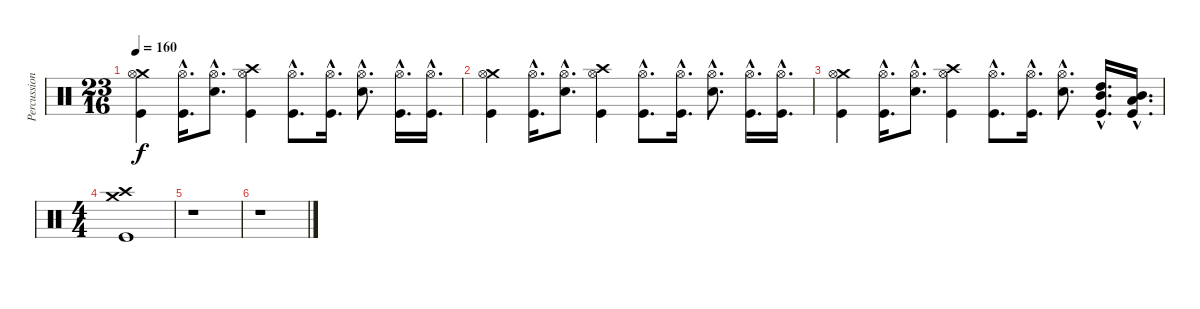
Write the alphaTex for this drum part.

\track ("Percussion" "Percussion") {instrument percussion}
\staff {score}
\articulation defaults
\ts (23 16)
\tempo 160
\clef neutral
\ks c
("Crash medium (hit)" "Hi-Hat (open)" "Kick (hit)").4{dy f} ("Hi-Hat (open)"{hac} "Kick (hit)"{hac}).16{d} ("Hi-Hat (open)"{hac} "Electric Snare (hit)"{hac}).8{d} ("Crash high (hit)" "Hi-Hat (open)" "Kick (hit)").4 ("Hi-Hat (open)"{hac} "Kick (hit)"{hac}).8{d} ("Hi-Hat (open)"{hac} "Kick (hit)"{hac}).16{d} ("Hi-Hat (open)"{hac} "Electric Snare (hit)"{hac}).8{d} ("Hi-Hat (open)"{hac} "Kick (hit)"{hac}).16{d} ("Hi-Hat (open)"{hac} "Kick (hit)"{hac}).16{d} |
("Crash medium (hit)" "Hi-Hat (open)" "Kick (hit)").4 ("Hi-Hat (open)"{hac} "Kick (hit)"{hac}).16{d} ("Hi-Hat (open)"{hac} "Electric Snare (hit)"{hac}).8{d} ("Crash high (hit)" "Hi-Hat (open)" "Kick (hit)").4 ("Hi-Hat (open)"{hac} "Kick (hit)"{hac}).8{d} ("Hi-Hat (open)"{hac} "Kick (hit)"{hac}).16{d} ("Hi-Hat (open)"{hac} "Electric Snare (hit)"{hac}).8{d} ("Hi-Hat (open)"{hac} "Kick (hit)"{hac}).16{d} ("Hi-Hat (open)"{hac} "Kick (hit)"{hac}).16{d} |
("Crash medium (hit)" "Hi-Hat (open)" "Kick (hit)").4 ("Hi-Hat (open)"{hac} "Kick (hit)"{hac}).16{d} ("Hi-Hat (open)"{hac} "Electric Snare (hit)"{hac}).8{d} ("Crash high (hit)" "Hi-Hat (open)" "Kick (hit)").4 ("Hi-Hat (open)"{hac} "Kick (hit)"{hac}).8{d} ("Hi-Hat (open)"{hac} "Kick (hit)"{hac}).16{d} ("Hi-Hat (open)"{hac} "Electric Snare (hit)"{hac}).8{d} ("High Tom (hit)"{hac} "Mid Tom (hit)"{hac} "Kick (hit)"{hac}).16{d} ("Mid Tom (hit)"{hac} "Low Tom (hit)"{hac} "Kick (hit)"{hac}).16{d} |
\ts (4 4)
("Crash medium (hit)" "Crash high (hit)" "Kick (hit)").1 |
r.1 |
r.1
